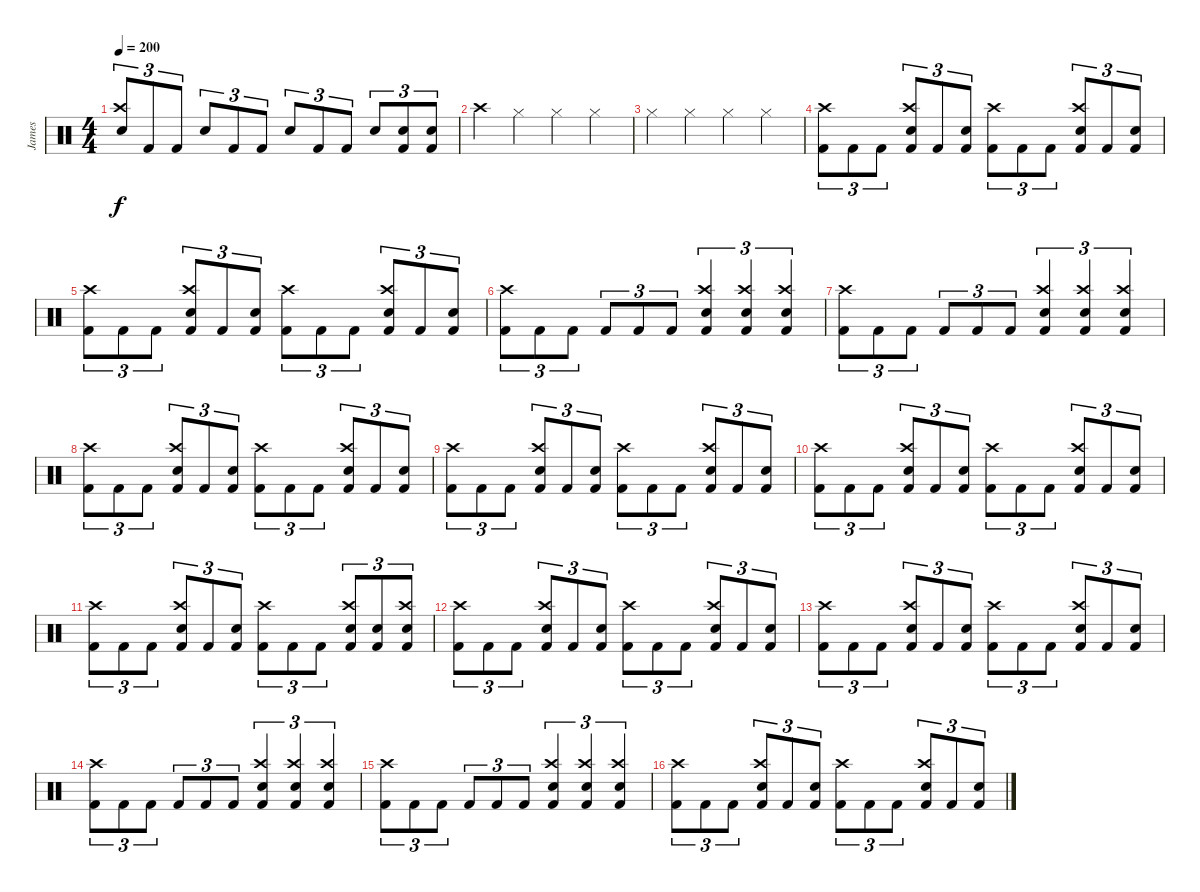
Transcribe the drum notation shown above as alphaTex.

\track ("James" "James") {instrument percussion}
\staff {score}
\articulation defaults
\ts (4 4)
\tempo 200
\clef neutral
\ks c
("Electric Snare (hit)" "Crash high (hit)").8{tu (3 2) dy f beam Up} "Kick (hit) 2".8{tu (3 2)} "Kick (hit) 2".8{tu (3 2)} "Electric Snare (hit)".8{tu (3 2) beam Up} "Kick (hit) 2".8{tu (3 2)} "Kick (hit) 2".8{tu (3 2)} "Electric Snare (hit)".8{tu (3 2) beam Up} "Kick (hit) 2".8{tu (3 2)} "Kick (hit) 2".8{tu (3 2)} "Electric Snare (hit)".8{tu (3 2) beam Up} ("Kick (hit) 2" "Electric Snare (hit)").8{tu (3 2)} ("Electric Snare (hit)" "Kick (hit) 2").8{tu (3 2)} |
"Crash high (hit)".4 "Hi-Hat (closed)".4 "Hi-Hat (closed)".4 "Hi-Hat (closed)".4 |
"Hi-Hat (closed)".4 "Hi-Hat (closed)".4 "Hi-Hat (closed)".4 "Hi-Hat (closed)".4 |
("Crash high (hit)" "Kick (hit) 2").8{tu (3 2)} "Kick (hit) 2".8{tu (3 2)} "Kick (hit) 2".8{tu (3 2)} ("Electric Snare (hit)" "Crash high (hit)" "Kick (hit) 2").8{tu (3 2)} "Kick (hit) 2".8{tu (3 2)} ("Electric Snare (hit)" "Kick (hit) 2").8{tu (3 2)} ("Crash high (hit)" "Kick (hit) 2").8{tu (3 2)} "Kick (hit) 2".8{tu (3 2)} "Kick (hit) 2".8{tu (3 2)} ("Electric Snare (hit)" "Crash high (hit)" "Kick (hit) 2").8{tu (3 2)} "Kick (hit) 2".8{tu (3 2)} ("Electric Snare (hit)" "Kick (hit) 2").8{tu (3 2)} |
("Crash high (hit)" "Kick (hit) 2").8{tu (3 2)} "Kick (hit) 2".8{tu (3 2)} "Kick (hit) 2".8{tu (3 2)} ("Electric Snare (hit)" "Crash high (hit)" "Kick (hit) 2").8{tu (3 2)} "Kick (hit) 2".8{tu (3 2)} ("Electric Snare (hit)" "Kick (hit) 2").8{tu (3 2)} ("Crash high (hit)" "Kick (hit) 2").8{tu (3 2)} "Kick (hit) 2".8{tu (3 2)} "Kick (hit) 2".8{tu (3 2)} ("Electric Snare (hit)" "Crash high (hit)" "Kick (hit) 2").8{tu (3 2)} "Kick (hit) 2".8{tu (3 2)} ("Electric Snare (hit)" "Kick (hit) 2").8{tu (3 2)} |
("Kick (hit) 2" "Crash high (hit)").8{tu (3 2)} "Kick (hit) 2".8{tu (3 2)} "Kick (hit) 2".8{tu (3 2)} "Kick (hit) 2".8{tu (3 2)} "Kick (hit) 2".8{tu (3 2)} "Kick (hit) 2".8{tu (3 2)} ("Crash high (hit)" "Kick (hit) 2" "Electric Snare (hit)").4{tu (3 2)} ("Kick (hit) 2" "Crash high (hit)" "Electric Snare (hit)").4{tu (3 2)} ("Kick (hit) 2" "Crash high (hit)" "Electric Snare (hit)").4{tu (3 2)} |
("Kick (hit) 2" "Crash high (hit)").8{tu (3 2)} "Kick (hit) 2".8{tu (3 2)} "Kick (hit) 2".8{tu (3 2)} "Kick (hit) 2".8{tu (3 2)} "Kick (hit) 2".8{tu (3 2)} "Kick (hit) 2".8{tu (3 2)} ("Crash high (hit)" "Kick (hit) 2" "Electric Snare (hit)").4{tu (3 2)} ("Kick (hit) 2" "Crash high (hit)" "Electric Snare (hit)").4{tu (3 2)} ("Kick (hit) 2" "Crash high (hit)" "Electric Snare (hit)").4{tu (3 2)} |
("Crash high (hit)" "Kick (hit) 2").8{tu (3 2)} "Kick (hit) 2".8{tu (3 2)} "Kick (hit) 2".8{tu (3 2)} ("Electric Snare (hit)" "Crash high (hit)" "Kick (hit) 2").8{tu (3 2)} "Kick (hit) 2".8{tu (3 2)} ("Electric Snare (hit)" "Kick (hit) 2").8{tu (3 2)} ("Crash high (hit)" "Kick (hit) 2").8{tu (3 2)} "Kick (hit) 2".8{tu (3 2)} "Kick (hit) 2".8{tu (3 2)} ("Electric Snare (hit)" "Crash high (hit)" "Kick (hit) 2").8{tu (3 2)} "Kick (hit) 2".8{tu (3 2)} ("Electric Snare (hit)" "Kick (hit) 2").8{tu (3 2)} |
("Crash high (hit)" "Kick (hit) 2").8{tu (3 2)} "Kick (hit) 2".8{tu (3 2)} "Kick (hit) 2".8{tu (3 2)} ("Electric Snare (hit)" "Crash high (hit)" "Kick (hit) 2").8{tu (3 2)} "Kick (hit) 2".8{tu (3 2)} ("Electric Snare (hit)" "Kick (hit) 2").8{tu (3 2)} ("Crash high (hit)" "Kick (hit) 2").8{tu (3 2)} "Kick (hit) 2".8{tu (3 2)} "Kick (hit) 2".8{tu (3 2)} ("Electric Snare (hit)" "Crash high (hit)" "Kick (hit) 2").8{tu (3 2)} "Kick (hit) 2".8{tu (3 2)} ("Electric Snare (hit)" "Kick (hit) 2").8{tu (3 2)} |
("Crash high (hit)" "Kick (hit) 2").8{tu (3 2)} "Kick (hit) 2".8{tu (3 2)} "Kick (hit) 2".8{tu (3 2)} ("Electric Snare (hit)" "Crash high (hit)" "Kick (hit) 2").8{tu (3 2)} "Kick (hit) 2".8{tu (3 2)} ("Electric Snare (hit)" "Kick (hit) 2").8{tu (3 2)} ("Crash high (hit)" "Kick (hit) 2").8{tu (3 2)} "Kick (hit) 2".8{tu (3 2)} "Kick (hit) 2".8{tu (3 2)} ("Electric Snare (hit)" "Crash high (hit)" "Kick (hit) 2").8{tu (3 2)} "Kick (hit) 2".8{tu (3 2)} ("Electric Snare (hit)" "Kick (hit) 2").8{tu (3 2)} |
("Crash high (hit)" "Kick (hit) 2").8{tu (3 2)} "Kick (hit) 2".8{tu (3 2)} "Kick (hit) 2".8{tu (3 2)} ("Electric Snare (hit)" "Crash high (hit)" "Kick (hit) 2").8{tu (3 2)} "Kick (hit) 2".8{tu (3 2)} ("Electric Snare (hit)" "Kick (hit) 2").8{tu (3 2)} ("Crash high (hit)" "Kick (hit) 2").8{tu (3 2)} "Kick (hit) 2".8{tu (3 2)} "Kick (hit) 2".8{tu (3 2)} ("Electric Snare (hit)" "Crash high (hit)" "Kick (hit) 2").8{tu (3 2)} ("Electric Snare (hit)" "Kick (hit) 2").8{tu (3 2)} ("Electric Snare (hit)" "Crash high (hit)" "Kick (hit) 2").8{tu (3 2)} |
("Crash high (hit)" "Kick (hit) 2").8{tu (3 2)} "Kick (hit) 2".8{tu (3 2)} "Kick (hit) 2".8{tu (3 2)} ("Electric Snare (hit)" "Crash high (hit)" "Kick (hit) 2").8{tu (3 2)} "Kick (hit) 2".8{tu (3 2)} ("Electric Snare (hit)" "Kick (hit) 2").8{tu (3 2)} ("Crash high (hit)" "Kick (hit) 2").8{tu (3 2)} "Kick (hit) 2".8{tu (3 2)} "Kick (hit) 2".8{tu (3 2)} ("Electric Snare (hit)" "Crash high (hit)" "Kick (hit) 2").8{tu (3 2)} "Kick (hit) 2".8{tu (3 2)} ("Electric Snare (hit)" "Kick (hit) 2").8{tu (3 2)} |
("Crash high (hit)" "Kick (hit) 2").8{tu (3 2)} "Kick (hit) 2".8{tu (3 2)} "Kick (hit) 2".8{tu (3 2)} ("Electric Snare (hit)" "Crash high (hit)" "Kick (hit) 2").8{tu (3 2)} "Kick (hit) 2".8{tu (3 2)} ("Electric Snare (hit)" "Kick (hit) 2").8{tu (3 2)} ("Crash high (hit)" "Kick (hit) 2").8{tu (3 2)} "Kick (hit) 2".8{tu (3 2)} "Kick (hit) 2".8{tu (3 2)} ("Electric Snare (hit)" "Crash high (hit)" "Kick (hit) 2").8{tu (3 2)} "Kick (hit) 2".8{tu (3 2)} ("Electric Snare (hit)" "Kick (hit) 2").8{tu (3 2)} |
("Kick (hit) 2" "Crash high (hit)").8{tu (3 2)} "Kick (hit) 2".8{tu (3 2)} "Kick (hit) 2".8{tu (3 2)} "Kick (hit) 2".8{tu (3 2)} "Kick (hit) 2".8{tu (3 2)} "Kick (hit) 2".8{tu (3 2)} ("Crash high (hit)" "Kick (hit) 2" "Electric Snare (hit)").4{tu (3 2)} ("Kick (hit) 2" "Crash high (hit)" "Electric Snare (hit)").4{tu (3 2)} ("Kick (hit) 2" "Crash high (hit)" "Electric Snare (hit)").4{tu (3 2)} |
("Kick (hit) 2" "Crash high (hit)").8{tu (3 2)} "Kick (hit) 2".8{tu (3 2)} "Kick (hit) 2".8{tu (3 2)} "Kick (hit) 2".8{tu (3 2)} "Kick (hit) 2".8{tu (3 2)} "Kick (hit) 2".8{tu (3 2)} ("Crash high (hit)" "Kick (hit) 2" "Electric Snare (hit)").4{tu (3 2)} ("Kick (hit) 2" "Crash high (hit)" "Electric Snare (hit)").4{tu (3 2)} ("Kick (hit) 2" "Crash high (hit)" "Electric Snare (hit)").4{tu (3 2)} |
("Crash high (hit)" "Kick (hit) 2").8{tu (3 2)} "Kick (hit) 2".8{tu (3 2)} "Kick (hit) 2".8{tu (3 2)} ("Electric Snare (hit)" "Crash high (hit)" "Kick (hit) 2").8{tu (3 2)} "Kick (hit) 2".8{tu (3 2)} ("Electric Snare (hit)" "Kick (hit) 2").8{tu (3 2)} ("Crash high (hit)" "Kick (hit) 2").8{tu (3 2)} "Kick (hit) 2".8{tu (3 2)} "Kick (hit) 2".8{tu (3 2)} ("Electric Snare (hit)" "Crash high (hit)" "Kick (hit) 2").8{tu (3 2)} "Kick (hit) 2".8{tu (3 2)} ("Electric Snare (hit)" "Kick (hit) 2").8{tu (3 2)}
